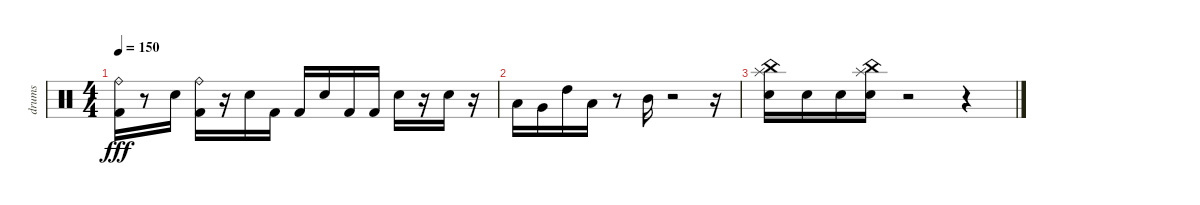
\track ("drums" "drums") {instrument percussion}
\staff {score}
\articulation defaults
\ts (4 4)
\tempo 150
\clef neutral
\ks c
("Kick (hit) 2" "Ride (bell)").16{dy fff} r.8 "Electric Snare (hit)".16 ("Kick (hit) 2" "Ride (bell)").16 r.16 "Electric Snare (hit)".16 "Kick (hit) 2".16 "Kick (hit) 2".16 "Electric Snare (hit)".16 "Kick (hit) 2".16 "Kick (hit) 2".16 "Electric Snare (hit)".16 r.16 "Electric Snare (hit)".16 r.16 |
"Low Floor Tom (hit)".16 "Very Low Tom (hit)".16 "High Tom (hit)".16 "Low Tom (hit)".16 r.8 "Mid Tom (hit)".16 r.2 r.16 |
("China (hit)" "Splash (hit)" "Electric Snare (hit)").16 "Electric Snare (hit)".16 "Electric Snare (hit)".16 ("China (hit)" "Splash (hit)" "Electric Snare (hit)").16 r.2 r.4
